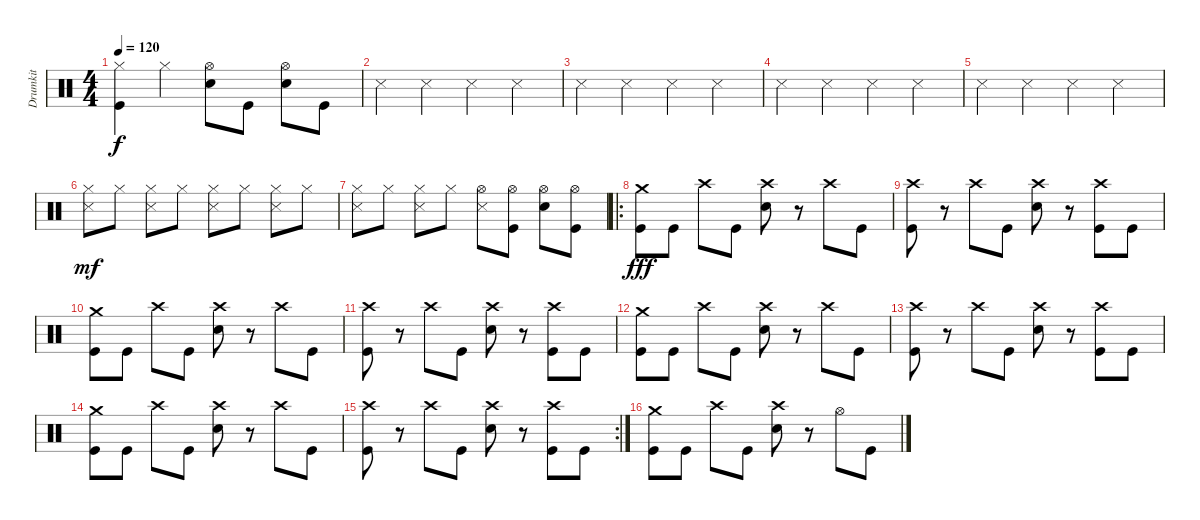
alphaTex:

\track ("Drumkit" "Drumkit") {instrument percussion}
\staff {score}
\articulation defaults
\ts (4 4)
\tempo 120
\clef neutral
\ks c
("Kick (hit)" "Hi-Hat (closed)").4{dy f} "Hi-Hat (closed)".4 ("Hi-Hat (open)" "Snare (hit) 2").8 "Kick (hit)".8 ("Hi-Hat (open)" "Snare (hit) 2").8 "Kick (hit)".8 |
"Snare (side stick) 3".4 "Snare (side stick) 3".4 "Snare (side stick) 3".4 "Snare (side stick) 3".4 |
"Snare (side stick) 3".4 "Snare (side stick) 3".4 "Snare (side stick) 3".4 "Snare (side stick) 3".4 |
"Snare (side stick) 3".4 "Snare (side stick) 3".4 "Snare (side stick) 3".4 "Snare (side stick) 3".4 |
"Snare (side stick) 3".4 "Snare (side stick) 3".4 "Snare (side stick) 3".4 "Snare (side stick) 3".4 |
("Snare (side stick) 3" "Hi-Hat (closed)").8{dy mf} "Hi-Hat (closed)".8 ("Snare (side stick) 3" "Hi-Hat (closed)").8 "Hi-Hat (closed)".8 ("Snare (side stick) 3" "Hi-Hat (closed)").8 "Hi-Hat (closed)".8 ("Snare (side stick) 3" "Hi-Hat (closed)").8 "Hi-Hat (closed)".8 |
("Hi-Hat (closed)" "Snare (side stick) 3").8 "Hi-Hat (closed)".8 ("Hi-Hat (closed)" "Snare (side stick) 3").8 "Hi-Hat (closed)".8 ("Hi-Hat (open)" "Snare (side stick) 3").8 ("Hi-Hat (open)" "Kick (hit)").8 ("Hi-Hat (open)" "Snare (hit) 2").8 ("Hi-Hat (open)" "Kick (hit)").8 |
\ro
("Kick (hit)" "Crash medium (hit)").8{dy fff} "Kick (hit)".8 "Crash high (hit)".8 "Kick (hit)".8 ("Snare (hit) 2" "Crash high (hit)").8 r.8 "Crash high (hit)".8 "Kick (hit)".8 |
("Kick (hit)" "Crash high (hit)").8 r.8 "Crash high (hit)".8 "Kick (hit)".8 ("Snare (hit) 2" "Crash high (hit)").8 r.8 ("Kick (hit)" "Crash high (hit)").8 "Kick (hit)".8 |
("Kick (hit)" "Crash medium (hit)").8 "Kick (hit)".8 "Crash high (hit)".8 "Kick (hit)".8 ("Snare (hit) 2" "Crash high (hit)").8 r.8 "Crash high (hit)".8 "Kick (hit)".8 |
("Kick (hit)" "Crash high (hit)").8 r.8 "Crash high (hit)".8 "Kick (hit)".8 ("Snare (hit) 2" "Crash high (hit)").8 r.8 ("Kick (hit)" "Crash high (hit)").8 "Kick (hit)".8 |
("Kick (hit)" "Crash medium (hit)").8 "Kick (hit)".8 "Crash high (hit)".8 "Kick (hit)".8 ("Snare (hit) 2" "Crash high (hit)").8 r.8 "Crash high (hit)".8 "Kick (hit)".8 |
("Kick (hit)" "Crash high (hit)").8 r.8 "Crash high (hit)".8 "Kick (hit)".8 ("Snare (hit) 2" "Crash high (hit)").8 r.8 ("Kick (hit)" "Crash high (hit)").8 "Kick (hit)".8 |
("Kick (hit)" "Crash medium (hit)").8 "Kick (hit)".8 "Crash high (hit)".8 "Kick (hit)".8 ("Snare (hit) 2" "Crash high (hit)").8 r.8 "Crash high (hit)".8 "Kick (hit)".8 |
\rc 2
("Kick (hit)" "Crash high (hit)").8 r.8 "Crash high (hit)".8 "Kick (hit)".8 ("Snare (hit) 2" "Crash high (hit)").8 r.8 ("Kick (hit)" "Crash high (hit)").8 "Kick (hit)".8 |
("Kick (hit)" "Crash medium (hit)").8 "Kick (hit)".8 "Crash high (hit)".8 "Kick (hit)".8 ("Snare (hit) 2" "Crash high (hit)").8 r.8 "Hi-Hat (open)".8 "Kick (hit)".8
